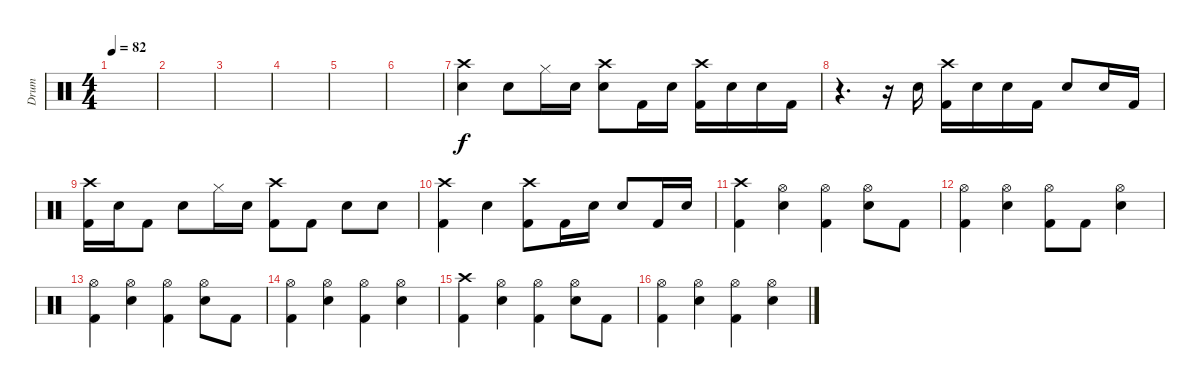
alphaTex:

\track ("Drum" "Drum") {instrument percussion}
\staff {score}
\articulation defaults
\ts (4 4)
\tempo 82
\clef neutral
\ks c
|
|
|
|
|
|
("Crash high (hit)" "Snare (hit) 2").4 "Snare (hit) 2".8 "Hi-Hat (closed)".16 "Snare (hit) 2".16 ("Crash high (hit)" "Snare (hit) 2").8 "Kick (hit) 2".16 "Snare (hit) 2".16 ("Crash high (hit)" "Kick (hit) 2").16 "Snare (hit) 2".16 "Snare (hit) 2".16 "Kick (hit) 2".16 |
r.4{d} r.16 "Snare (hit) 2".16 ("Crash high (hit)" "Kick (hit) 2").16 "Snare (hit) 2".16 "Snare (hit) 2".16 "Kick (hit) 2".16 "Snare (hit) 2".8 "Snare (hit) 2".16 "Kick (hit) 2".16 |
("Crash high (hit)" "Kick (hit) 2").16 "Snare (hit) 2".16 "Kick (hit) 2".8 "Snare (hit) 2".8 "Hi-Hat (closed)".16 "Snare (hit) 2".16 ("Crash high (hit)" "Kick (hit) 2").8 "Kick (hit) 2".8 "Snare (hit) 2".8 "Snare (hit) 2".8 |
("Crash high (hit)" "Kick (hit) 2").4 "Snare (hit) 2".4 ("Crash high (hit)" "Kick (hit) 2").8 "Kick (hit) 2".16 "Snare (hit) 2".16 "Snare (hit) 2".8 "Kick (hit) 2".16 "Snare (hit) 2".16 |
("Crash high (hit)" "Kick (hit) 2").4 ("Hi-Hat (open)" "Snare (hit) 2").4 ("Hi-Hat (open)" "Kick (hit) 2").4 ("Hi-Hat (open)" "Snare (hit) 2").8 "Kick (hit) 2".8 |
("Hi-Hat (open)" "Kick (hit) 2").4 ("Hi-Hat (open)" "Snare (hit) 2").4 ("Hi-Hat (open)" "Kick (hit) 2").8 "Kick (hit) 2".8 ("Hi-Hat (open)" "Snare (hit) 2").4 |
("Hi-Hat (open)" "Kick (hit) 2").4 ("Hi-Hat (open)" "Snare (hit) 2").4 ("Hi-Hat (open)" "Kick (hit) 2").4 ("Hi-Hat (open)" "Snare (hit) 2").8 "Kick (hit) 2".8 |
("Hi-Hat (open)" "Kick (hit) 2").4 ("Hi-Hat (open)" "Snare (hit) 2").4 ("Hi-Hat (open)" "Kick (hit) 2").4 ("Hi-Hat (open)" "Snare (hit) 2").4 |
("Crash high (hit)" "Kick (hit) 2").4 ("Hi-Hat (open)" "Snare (hit) 2").4 ("Hi-Hat (open)" "Kick (hit) 2").4 ("Hi-Hat (open)" "Snare (hit) 2").8 "Kick (hit) 2".8 |
("Hi-Hat (open)" "Kick (hit) 2").4 ("Hi-Hat (open)" "Snare (hit) 2").4 ("Hi-Hat (open)" "Kick (hit) 2").4 ("Hi-Hat (open)" "Snare (hit) 2").4
